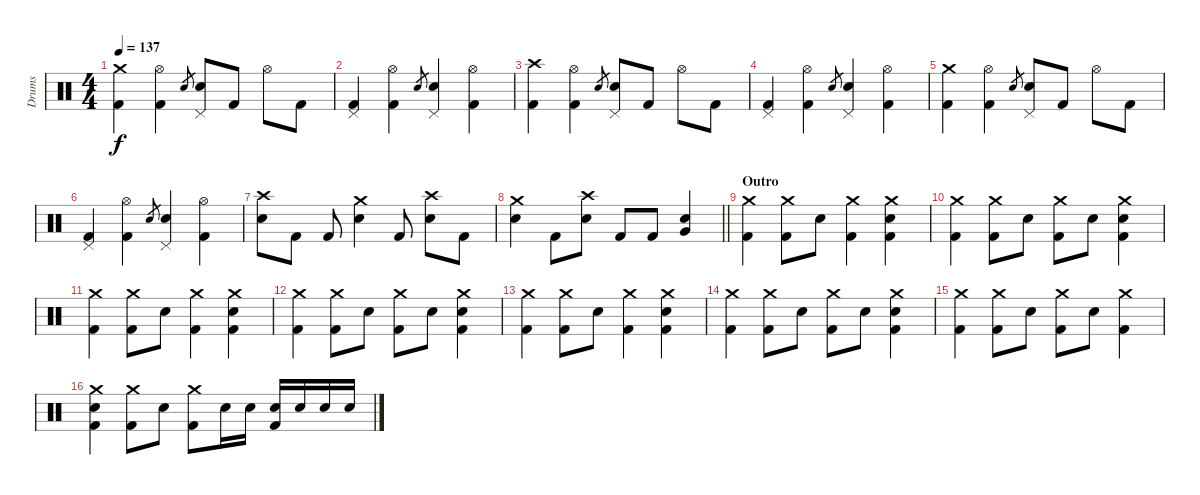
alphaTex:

\track ("Drums" "Drums") {instrument percussion}
\staff {score}
\articulation defaults
\ts (4 4)
\tempo 137
\clef neutral
\ks c
("Crash medium (hit)" "Kick (hit) 2").4{dy f} ("Hi-Hat (open)" "Kick (hit) 2").4 "Electric Snare (hit)".8{gr} ("Pedal Hi-Hat (hit)" "Electric Snare (hit)").8 "Kick (hit) 2".8 "Hi-Hat (open)".8 "Kick (hit) 2".8 |
("Pedal Hi-Hat (hit)" "Kick (hit) 2").4 ("Hi-Hat (open)" "Kick (hit) 2").4 "Electric Snare (hit)".8{gr} ("Pedal Hi-Hat (hit)" "Electric Snare (hit)").4 ("Hi-Hat (open)" "Kick (hit) 2").4 |
("Crash high (hit)" "Kick (hit) 2").4 ("Hi-Hat (open)" "Kick (hit) 2").4 "Electric Snare (hit)".8{gr} ("Pedal Hi-Hat (hit)" "Electric Snare (hit)").8 "Kick (hit) 2".8 "Hi-Hat (open)".8 "Kick (hit) 2".8 |
("Pedal Hi-Hat (hit)" "Kick (hit) 2").4 ("Hi-Hat (open)" "Kick (hit) 2").4 "Electric Snare (hit)".8{gr} ("Pedal Hi-Hat (hit)" "Electric Snare (hit)").4 ("Hi-Hat (open)" "Kick (hit) 2").4 |
("Crash medium (hit)" "Kick (hit) 2").4 ("Hi-Hat (open)" "Kick (hit) 2").4 "Electric Snare (hit)".8{gr} ("Pedal Hi-Hat (hit)" "Electric Snare (hit)").8 "Kick (hit) 2".8 "Hi-Hat (open)".8 "Kick (hit) 2".8 |
("Pedal Hi-Hat (hit)" "Kick (hit) 2").4 ("Hi-Hat (open)" "Kick (hit) 2").4 "Electric Snare (hit)".8{gr} ("Pedal Hi-Hat (hit)" "Electric Snare (hit)").4 ("Hi-Hat (open)" "Kick (hit) 2").4 |
("Crash high (hit)" "Electric Snare (hit)").8 "Kick (hit) 2".8 "Kick (hit) 2".8 ("Crash medium (hit)" "Electric Snare (hit)").4 "Kick (hit) 2".8 ("Crash high (hit)" "Electric Snare (hit)").8 "Kick (hit) 2".8 |
\barLineRight lightlight
("Crash medium (hit)" "Electric Snare (hit)").4 "Kick (hit) 2".8 ("Crash high (hit)" "Electric Snare (hit)").8 "Kick (hit) 2".8 "Kick (hit) 2".8 ("Very Low Tom (hit)" "Electric Snare (hit)").4 |
\section ("" "Outro")
("Crash medium (hit)" "Kick (hit) 2").4 ("Crash medium (hit)" "Kick (hit) 2").8 "Electric Snare (hit)".8 ("Crash medium (hit)" "Kick (hit) 2").4 ("Crash medium (hit)" "Electric Snare (hit)" "Kick (hit) 2").4 |
("Crash medium (hit)" "Kick (hit) 2").4 ("Crash medium (hit)" "Kick (hit) 2").8 "Electric Snare (hit)".8 ("Crash medium (hit)" "Kick (hit) 2").8 "Electric Snare (hit)".8 ("Crash medium (hit)" "Electric Snare (hit)" "Kick (hit) 2").4 |
("Crash medium (hit)" "Kick (hit) 2").4 ("Crash medium (hit)" "Kick (hit) 2").8 "Electric Snare (hit)".8 ("Crash medium (hit)" "Kick (hit) 2").4 ("Crash medium (hit)" "Electric Snare (hit)" "Kick (hit) 2").4 |
("Crash medium (hit)" "Kick (hit) 2").4 ("Crash medium (hit)" "Kick (hit) 2").8 "Electric Snare (hit)".8 ("Crash medium (hit)" "Kick (hit) 2").8 "Electric Snare (hit)".8 ("Crash medium (hit)" "Electric Snare (hit)" "Kick (hit) 2").4 |
("Crash medium (hit)" "Kick (hit) 2").4 ("Crash medium (hit)" "Kick (hit) 2").8 "Electric Snare (hit)".8 ("Crash medium (hit)" "Kick (hit) 2").4 ("Crash medium (hit)" "Electric Snare (hit)" "Kick (hit) 2").4 |
("Crash medium (hit)" "Kick (hit) 2").4 ("Crash medium (hit)" "Kick (hit) 2").8 "Electric Snare (hit)".8 ("Crash medium (hit)" "Kick (hit) 2").8 "Electric Snare (hit)".8 ("Crash medium (hit)" "Electric Snare (hit)" "Kick (hit) 2").4 |
("Crash medium (hit)" "Kick (hit) 2").4 ("Crash medium (hit)" "Kick (hit) 2").8 "Electric Snare (hit)".8 ("Crash medium (hit)" "Kick (hit) 2").8 "Electric Snare (hit)".8 ("Crash medium (hit)" "Kick (hit) 2").4 |
("Crash medium (hit)" "Electric Snare (hit)" "Kick (hit) 2").4 ("Crash medium (hit)" "Kick (hit) 2").8 "Electric Snare (hit)".8 ("Crash medium (hit)" "Kick (hit) 2").8 "Electric Snare (hit)".16 "Electric Snare (hit)".16 ("Electric Snare (hit)" "Kick (hit) 2").16 "Electric Snare (hit)".16 "Electric Snare (hit)".16 "Electric Snare (hit)".16
